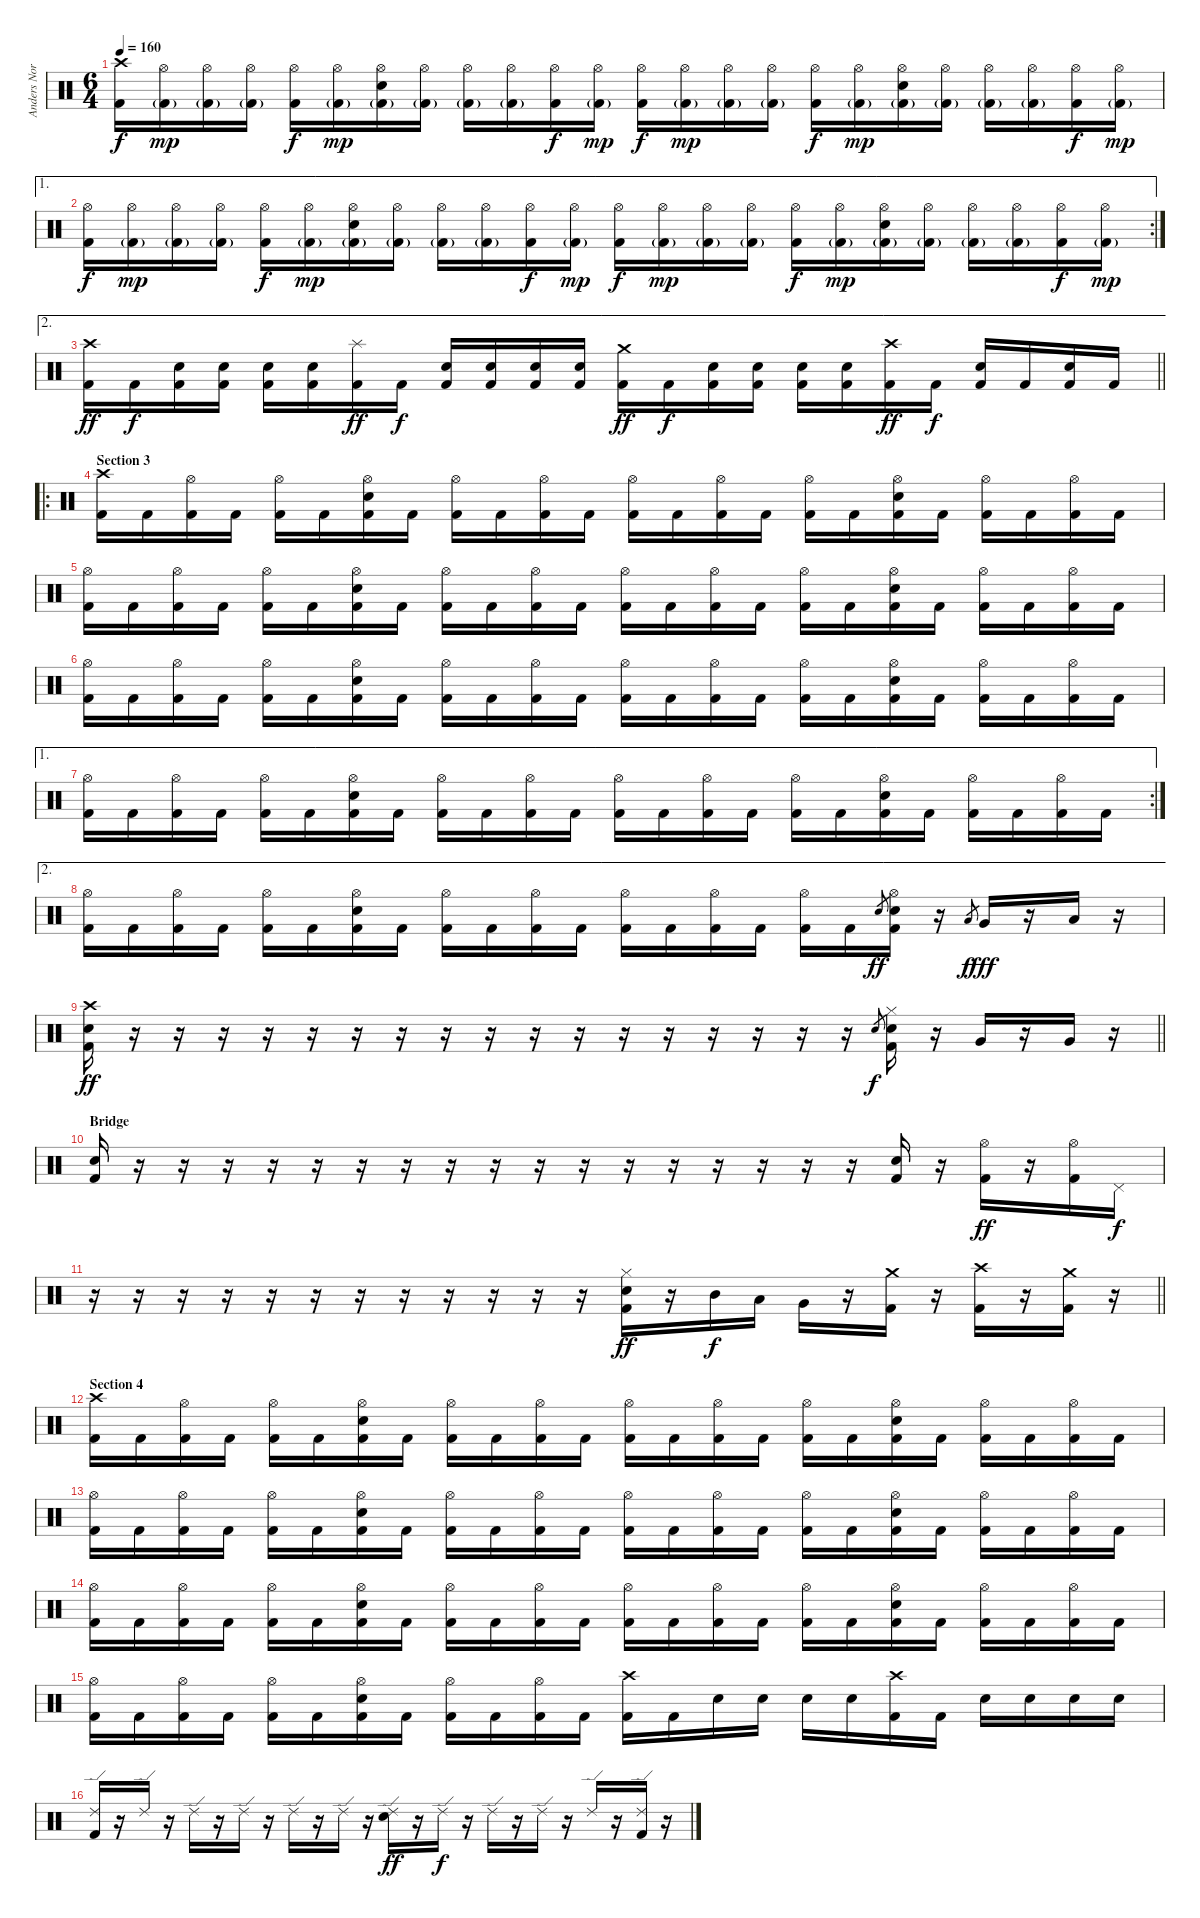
\track ("Anders Nordin" "Anders Nor") {instrument percussion}
\staff {score}
\articulation defaults
\ts (6 4)
\tempo 160
\clef neutral
\ks c
("Crash high (hit)" "Kick (hit) 2").16{dy f} ("Hi-Hat (open)" "Kick (hit) 2"{g}).16{dy mp} ("Hi-Hat (open)" "Kick (hit) 2"{g}).16 ("Hi-Hat (open)" "Kick (hit) 2"{g}).16 ("Hi-Hat (open)" "Kick (hit) 2").16{dy f} ("Hi-Hat (open)" "Kick (hit) 2"{g}).16{dy mp} ("Hi-Hat (open)" "Snare (hit) 2" "Kick (hit) 2"{g}).16 ("Hi-Hat (open)" "Kick (hit) 2"{g}).16 ("Hi-Hat (open)" "Kick (hit) 2"{g}).16 ("Hi-Hat (open)" "Kick (hit) 2"{g}).16 ("Hi-Hat (open)" "Kick (hit) 2").16{dy f} ("Hi-Hat (open)" "Kick (hit) 2"{g}).16{dy mp} ("Hi-Hat (open)" "Kick (hit) 2").16{dy f} ("Hi-Hat (open)" "Kick (hit) 2"{g}).16{dy mp} ("Hi-Hat (open)" "Kick (hit) 2"{g}).16 ("Hi-Hat (open)" "Kick (hit) 2"{g}).16 ("Hi-Hat (open)" "Kick (hit) 2").16{dy f} ("Hi-Hat (open)" "Kick (hit) 2"{g}).16{dy mp} ("Hi-Hat (open)" "Snare (hit) 2" "Kick (hit) 2"{g}).16 ("Hi-Hat (open)" "Kick (hit) 2"{g}).16 ("Hi-Hat (open)" "Kick (hit) 2"{g}).16 ("Hi-Hat (open)" "Kick (hit) 2"{g}).16 ("Hi-Hat (open)" "Kick (hit) 2").16{dy f} ("Hi-Hat (open)" "Kick (hit) 2"{g}).16{dy mp} |
\ae 1
\rc 2
("Hi-Hat (open)" "Kick (hit) 2").16{dy f} ("Hi-Hat (open)" "Kick (hit) 2"{g}).16{dy mp} ("Hi-Hat (open)" "Kick (hit) 2"{g}).16 ("Hi-Hat (open)" "Kick (hit) 2"{g}).16 ("Hi-Hat (open)" "Kick (hit) 2").16{dy f} ("Hi-Hat (open)" "Kick (hit) 2"{g}).16{dy mp} ("Hi-Hat (open)" "Snare (hit) 2" "Kick (hit) 2"{g}).16 ("Hi-Hat (open)" "Kick (hit) 2"{g}).16 ("Hi-Hat (open)" "Kick (hit) 2"{g}).16 ("Hi-Hat (open)" "Kick (hit) 2"{g}).16 ("Hi-Hat (open)" "Kick (hit) 2").16{dy f} ("Hi-Hat (open)" "Kick (hit) 2"{g}).16{dy mp} ("Hi-Hat (open)" "Kick (hit) 2").16{dy f} ("Hi-Hat (open)" "Kick (hit) 2"{g}).16{dy mp} ("Hi-Hat (open)" "Kick (hit) 2"{g}).16 ("Hi-Hat (open)" "Kick (hit) 2"{g}).16 ("Hi-Hat (open)" "Kick (hit) 2").16{dy f} ("Hi-Hat (open)" "Kick (hit) 2"{g}).16{dy mp} ("Hi-Hat (open)" "Snare (hit) 2" "Kick (hit) 2"{g}).16 ("Hi-Hat (open)" "Kick (hit) 2"{g}).16 ("Hi-Hat (open)" "Kick (hit) 2"{g}).16 ("Hi-Hat (open)" "Kick (hit) 2"{g}).16 ("Hi-Hat (open)" "Kick (hit) 2").16{dy f} ("Hi-Hat (open)" "Kick (hit) 2"{g}).16{dy mp} |
\ae 2
\barLineRight lightlight
("Crash high (hit)" "Kick (hit) 2").16{dy ff} "Kick (hit) 2".16{dy f} ("Snare (hit) 2" "Kick (hit) 2").16 ("Snare (hit) 2" "Kick (hit) 2").16 ("Snare (hit) 2" "Kick (hit) 2").16 ("Snare (hit) 2" "Kick (hit) 2").16 ("Splash (hit)" "Kick (hit) 2").16{dy ff} "Kick (hit) 2".16{dy f} ("Snare (hit) 2" "Kick (hit) 2").16 ("Snare (hit) 2" "Kick (hit) 2").16 ("Snare (hit) 2" "Kick (hit) 2").16 ("Snare (hit) 2" "Kick (hit) 2").16 ("Crash medium (hit)" "Kick (hit) 2").16{dy ff} "Kick (hit) 2".16{dy f} ("Snare (hit) 2" "Kick (hit) 2").16 ("Snare (hit) 2" "Kick (hit) 2").16 ("Snare (hit) 2" "Kick (hit) 2").16 ("Snare (hit) 2" "Kick (hit) 2").16 ("Crash high (hit)" "Kick (hit) 2").16{dy ff} "Kick (hit) 2".16{dy f} ("Snare (hit) 2" "Kick (hit) 2").16 "Kick (hit) 2".16 ("Snare (hit) 2" "Kick (hit) 2").16 "Kick (hit) 2".16 |
\ro
\section ("" "Section 3")
("Crash high (hit)" "Kick (hit) 2").16 "Kick (hit) 2".16 ("Hi-Hat (open)" "Kick (hit) 2").16 "Kick (hit) 2".16 ("Hi-Hat (open)" "Kick (hit) 2").16 "Kick (hit) 2".16 ("Hi-Hat (open)" "Snare (hit) 2" "Kick (hit) 2").16 "Kick (hit) 2".16 ("Hi-Hat (open)" "Kick (hit) 2").16 "Kick (hit) 2".16 ("Hi-Hat (open)" "Kick (hit) 2").16 "Kick (hit) 2".16 ("Hi-Hat (open)" "Kick (hit) 2").16 "Kick (hit) 2".16 ("Hi-Hat (open)" "Kick (hit) 2").16 "Kick (hit) 2".16 ("Hi-Hat (open)" "Kick (hit) 2").16 "Kick (hit) 2".16 ("Hi-Hat (open)" "Snare (hit) 2" "Kick (hit) 2").16 "Kick (hit) 2".16 ("Hi-Hat (open)" "Kick (hit) 2").16 "Kick (hit) 2".16 ("Hi-Hat (open)" "Kick (hit) 2").16 "Kick (hit) 2".16 |
("Hi-Hat (open)" "Kick (hit) 2").16 "Kick (hit) 2".16 ("Hi-Hat (open)" "Kick (hit) 2").16 "Kick (hit) 2".16 ("Hi-Hat (open)" "Kick (hit) 2").16 "Kick (hit) 2".16 ("Hi-Hat (open)" "Snare (hit) 2" "Kick (hit) 2").16 "Kick (hit) 2".16 ("Hi-Hat (open)" "Kick (hit) 2").16 "Kick (hit) 2".16 ("Hi-Hat (open)" "Kick (hit) 2").16 "Kick (hit) 2".16 ("Hi-Hat (open)" "Kick (hit) 2").16 "Kick (hit) 2".16 ("Hi-Hat (open)" "Kick (hit) 2").16 "Kick (hit) 2".16 ("Hi-Hat (open)" "Kick (hit) 2").16 "Kick (hit) 2".16 ("Hi-Hat (open)" "Snare (hit) 2" "Kick (hit) 2").16 "Kick (hit) 2".16 ("Hi-Hat (open)" "Kick (hit) 2").16 "Kick (hit) 2".16 ("Hi-Hat (open)" "Kick (hit) 2").16 "Kick (hit) 2".16 |
("Hi-Hat (open)" "Kick (hit) 2").16 "Kick (hit) 2".16 ("Hi-Hat (open)" "Kick (hit) 2").16 "Kick (hit) 2".16 ("Hi-Hat (open)" "Kick (hit) 2").16 "Kick (hit) 2".16 ("Hi-Hat (open)" "Snare (hit) 2" "Kick (hit) 2").16 "Kick (hit) 2".16 ("Hi-Hat (open)" "Kick (hit) 2").16 "Kick (hit) 2".16 ("Hi-Hat (open)" "Kick (hit) 2").16 "Kick (hit) 2".16 ("Hi-Hat (open)" "Kick (hit) 2").16 "Kick (hit) 2".16 ("Hi-Hat (open)" "Kick (hit) 2").16 "Kick (hit) 2".16 ("Hi-Hat (open)" "Kick (hit) 2").16 "Kick (hit) 2".16 ("Hi-Hat (open)" "Snare (hit) 2" "Kick (hit) 2").16 "Kick (hit) 2".16 ("Hi-Hat (open)" "Kick (hit) 2").16 "Kick (hit) 2".16 ("Hi-Hat (open)" "Kick (hit) 2").16 "Kick (hit) 2".16 |
\ae 1
\rc 2
("Hi-Hat (open)" "Kick (hit) 2").16 "Kick (hit) 2".16 ("Hi-Hat (open)" "Kick (hit) 2").16 "Kick (hit) 2".16 ("Hi-Hat (open)" "Kick (hit) 2").16 "Kick (hit) 2".16 ("Hi-Hat (open)" "Snare (hit) 2" "Kick (hit) 2").16 "Kick (hit) 2".16 ("Hi-Hat (open)" "Kick (hit) 2").16 "Kick (hit) 2".16 ("Hi-Hat (open)" "Kick (hit) 2").16 "Kick (hit) 2".16 ("Hi-Hat (open)" "Kick (hit) 2").16 "Kick (hit) 2".16 ("Hi-Hat (open)" "Kick (hit) 2").16 "Kick (hit) 2".16 ("Hi-Hat (open)" "Kick (hit) 2").16 "Kick (hit) 2".16 ("Hi-Hat (open)" "Snare (hit) 2" "Kick (hit) 2").16 "Kick (hit) 2".16 ("Hi-Hat (open)" "Kick (hit) 2").16 "Kick (hit) 2".16 ("Hi-Hat (open)" "Kick (hit) 2").16 "Kick (hit) 2".16 |
\ae 2
("Hi-Hat (open)" "Kick (hit) 2").16 "Kick (hit) 2".16 ("Hi-Hat (open)" "Kick (hit) 2").16 "Kick (hit) 2".16 ("Hi-Hat (open)" "Kick (hit) 2").16 "Kick (hit) 2".16 ("Hi-Hat (open)" "Snare (hit) 2" "Kick (hit) 2").16 "Kick (hit) 2".16 ("Hi-Hat (open)" "Kick (hit) 2").16 "Kick (hit) 2".16 ("Hi-Hat (open)" "Kick (hit) 2").16 "Kick (hit) 2".16 ("Hi-Hat (open)" "Kick (hit) 2").16 "Kick (hit) 2".16 ("Hi-Hat (open)" "Kick (hit) 2").16 "Kick (hit) 2".16 ("Hi-Hat (open)" "Kick (hit) 2").16 "Kick (hit) 2".16 "Snare (hit) 2".8{gr dy ff} ("Hi-Hat (open)" "Snare (hit) 2" "Kick (hit) 2").16 r.16 "Low Tom (hit)".8{gr dy f} "Very Low Tom (hit)".16{dy fff} r.16 "Low Floor Tom (hit)".16 r.16 |
\barLineRight lightlight
("Crash high (hit)" "Snare (hit) 2" "Kick (hit) 2").16{dy ff} r.16 r.16 r.16 r.16 r.16 r.16 r.16 r.16 r.16 r.16 r.16 r.16 r.16 r.16 r.16 r.16 r.16 "Snare (hit) 2".8{gr dy f} ("Hi-Hat (closed)" "Snare (hit) 2" "Kick (hit) 2").16 r.16 "Very Low Tom (hit)".16 r.16 "Very Low Tom (hit)".16 r.16 |
\section ("" "Bridge")
("Snare (hit) 2" "Kick (hit) 2").16 r.16 r.16 r.16 r.16 r.16 r.16 r.16 r.16 r.16 r.16 r.16 r.16 r.16 r.16 r.16 r.16 r.16 ("Snare (hit) 2" "Kick (hit) 2").16 r.16 ("Hi-Hat (open)" "Kick (hit) 2").16{dy ff} r.16 ("Hi-Hat (open)" "Kick (hit) 2").16 "Pedal Hi-Hat (hit)".16{dy f} |
\barLineRight lightlight
r.16 r.16 r.16 r.16 r.16 r.16 r.16 r.16 r.16 r.16 r.16 r.16 ("Hi-Hat (closed)" "Snare (hit) 2" "Kick (hit) 2").16{dy ff} r.16 "Mid Tom (hit)".16{dy f} "Low Tom (hit)".16 "Very Low Tom (hit)".16 r.16 ("Crash medium (hit)" "Kick (hit) 2").16 r.16 ("Crash high (hit)" "Kick (hit) 2").16 r.16 ("Crash medium (hit)" "Kick (hit) 2").16 r.16 |
\section ("" "Section 4")
("Crash high (hit)" "Kick (hit) 2").16 "Kick (hit) 2".16 ("Hi-Hat (open)" "Kick (hit) 2").16 "Kick (hit) 2".16 ("Hi-Hat (open)" "Kick (hit) 2").16 "Kick (hit) 2".16 ("Hi-Hat (open)" "Snare (hit) 2" "Kick (hit) 2").16 "Kick (hit) 2".16 ("Hi-Hat (open)" "Kick (hit) 2").16 "Kick (hit) 2".16 ("Hi-Hat (open)" "Kick (hit) 2").16 "Kick (hit) 2".16 ("Hi-Hat (open)" "Kick (hit) 2").16 "Kick (hit) 2".16 ("Hi-Hat (open)" "Kick (hit) 2").16 "Kick (hit) 2".16 ("Hi-Hat (open)" "Kick (hit) 2").16 "Kick (hit) 2".16 ("Hi-Hat (open)" "Snare (hit) 2" "Kick (hit) 2").16 "Kick (hit) 2".16 ("Hi-Hat (open)" "Kick (hit) 2").16 "Kick (hit) 2".16 ("Hi-Hat (open)" "Kick (hit) 2").16 "Kick (hit) 2".16 |
("Hi-Hat (open)" "Kick (hit) 2").16 "Kick (hit) 2".16 ("Hi-Hat (open)" "Kick (hit) 2").16 "Kick (hit) 2".16 ("Hi-Hat (open)" "Kick (hit) 2").16 "Kick (hit) 2".16 ("Hi-Hat (open)" "Snare (hit) 2" "Kick (hit) 2").16 "Kick (hit) 2".16 ("Hi-Hat (open)" "Kick (hit) 2").16 "Kick (hit) 2".16 ("Hi-Hat (open)" "Kick (hit) 2").16 "Kick (hit) 2".16 ("Hi-Hat (open)" "Kick (hit) 2").16 "Kick (hit) 2".16 ("Hi-Hat (open)" "Kick (hit) 2").16 "Kick (hit) 2".16 ("Hi-Hat (open)" "Kick (hit) 2").16 "Kick (hit) 2".16 ("Hi-Hat (open)" "Snare (hit) 2" "Kick (hit) 2").16 "Kick (hit) 2".16 ("Hi-Hat (open)" "Kick (hit) 2").16 "Kick (hit) 2".16 ("Hi-Hat (open)" "Kick (hit) 2").16 "Kick (hit) 2".16 |
("Hi-Hat (open)" "Kick (hit) 2").16 "Kick (hit) 2".16 ("Hi-Hat (open)" "Kick (hit) 2").16 "Kick (hit) 2".16 ("Hi-Hat (open)" "Kick (hit) 2").16 "Kick (hit) 2".16 ("Hi-Hat (open)" "Snare (hit) 2" "Kick (hit) 2").16 "Kick (hit) 2".16 ("Hi-Hat (open)" "Kick (hit) 2").16 "Kick (hit) 2".16 ("Hi-Hat (open)" "Kick (hit) 2").16 "Kick (hit) 2".16 ("Hi-Hat (open)" "Kick (hit) 2").16 "Kick (hit) 2".16 ("Hi-Hat (open)" "Kick (hit) 2").16 "Kick (hit) 2".16 ("Hi-Hat (open)" "Kick (hit) 2").16 "Kick (hit) 2".16 ("Hi-Hat (open)" "Snare (hit) 2" "Kick (hit) 2").16 "Kick (hit) 2".16 ("Hi-Hat (open)" "Kick (hit) 2").16 "Kick (hit) 2".16 ("Hi-Hat (open)" "Kick (hit) 2").16 "Kick (hit) 2".16 |
("Hi-Hat (open)" "Kick (hit) 2").16 "Kick (hit) 2".16 ("Hi-Hat (open)" "Kick (hit) 2").16 "Kick (hit) 2".16 ("Hi-Hat (open)" "Kick (hit) 2").16 "Kick (hit) 2".16 ("Hi-Hat (open)" "Snare (hit) 2" "Kick (hit) 2").16 "Kick (hit) 2".16 ("Hi-Hat (open)" "Kick (hit) 2").16 "Kick (hit) 2".16 ("Hi-Hat (open)" "Kick (hit) 2").16 "Kick (hit) 2".16 ("Crash high (hit)" "Kick (hit) 2").16 "Kick (hit) 2".16 "Snare (hit) 2".16 "Snare (hit) 2".16 "Snare (hit) 2".16 "Snare (hit) 2".16 ("Crash high (hit)" "Kick (hit) 2").16 "Kick (hit) 2".16 "Snare (hit) 2".16 "Snare (hit) 2".16 "Snare (hit) 2".16 "Snare (hit) 2".16 |
("Ride (edge) 2" "Kick (hit) 2").16 r.16 "Ride (edge) 2".16 r.16 "Ride (edge) 2".16 r.16 "Ride (edge) 2".16 r.16 "Ride (edge) 2".16 r.16 "Ride (edge) 2".16 r.16 ("Ride (edge) 2" "Snare (hit) 2").16{dy ff} r.16 "Ride (edge) 2".16{dy f} r.16 "Ride (edge) 2".16 r.16 "Ride (edge) 2".16 r.16 "Ride (edge) 2".16 r.16 ("Ride (edge) 2" "Kick (hit) 2").16 r.16
